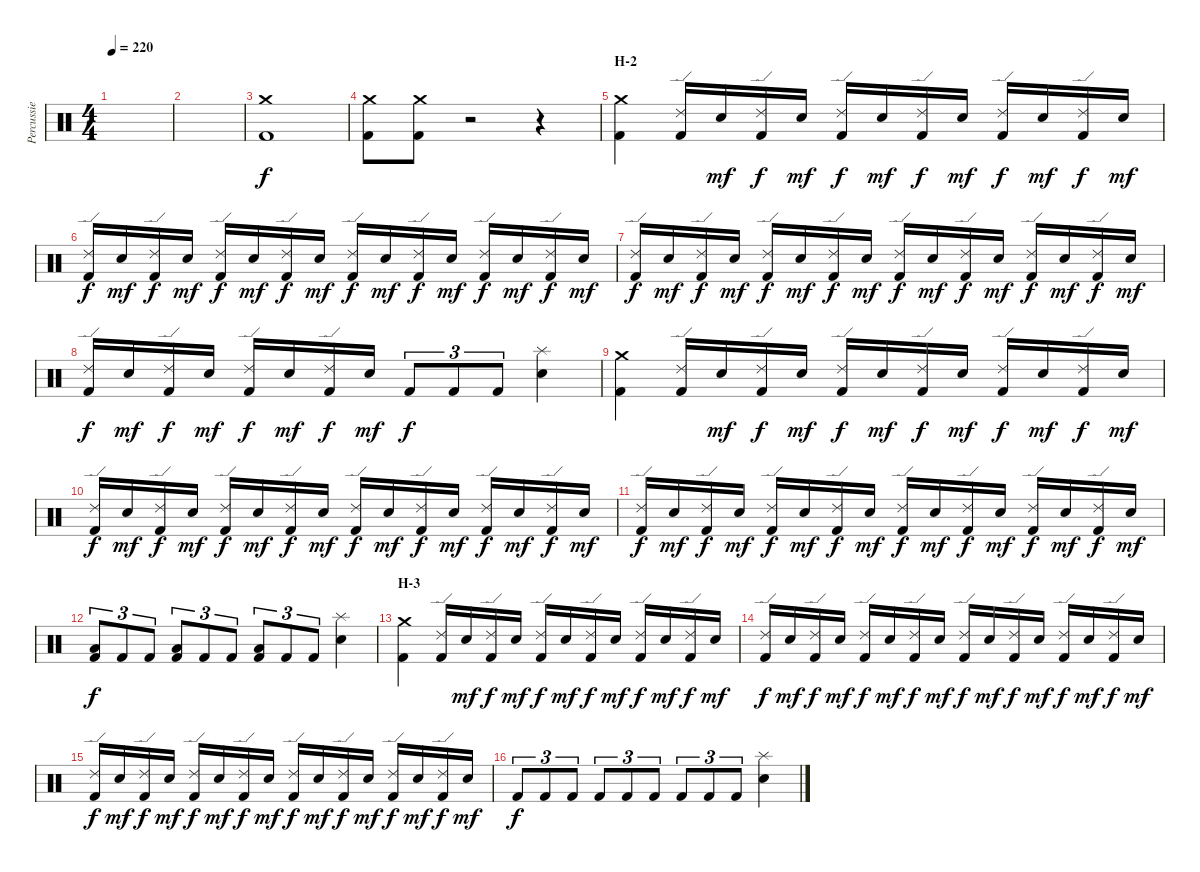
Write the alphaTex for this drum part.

\track ("Percussie" "Percussie") {instrument percussion}
\staff {score}
\articulation defaults
\ts (4 4)
\tempo 220
\clef neutral
\ks c
|
|
("Crash medium (hit)" "Kick (hit) 2").1 |
("Crash medium (hit)" "Kick (hit) 2").8 ("Crash medium (hit)" "Kick (hit) 2").8 r.2 r.4 |
\section ("" "H-2")
("Crash medium (hit)" "Kick (hit) 2").4 ("Ride (edge) 2" "Kick (hit) 2").16 "Electric Snare (hit)".16{dy mf} ("Ride (edge) 2" "Kick (hit) 2").16{dy f} "Electric Snare (hit)".16{dy mf} ("Ride (edge) 2" "Kick (hit) 2").16{dy f} "Electric Snare (hit)".16{dy mf} ("Ride (edge) 2" "Kick (hit) 2").16{dy f} "Electric Snare (hit)".16{dy mf} ("Ride (edge) 2" "Kick (hit) 2").16{dy f} "Electric Snare (hit)".16{dy mf} ("Ride (edge) 2" "Kick (hit) 2").16{dy f} "Electric Snare (hit)".16{dy mf} |
("Ride (edge) 2" "Kick (hit) 2").16{dy f} "Electric Snare (hit)".16{dy mf} ("Ride (edge) 2" "Kick (hit) 2").16{dy f} "Electric Snare (hit)".16{dy mf} ("Ride (edge) 2" "Kick (hit) 2").16{dy f} "Electric Snare (hit)".16{dy mf} ("Ride (edge) 2" "Kick (hit) 2").16{dy f} "Electric Snare (hit)".16{dy mf} ("Ride (edge) 2" "Kick (hit) 2").16{dy f} "Electric Snare (hit)".16{dy mf} ("Ride (edge) 2" "Kick (hit) 2").16{dy f} "Electric Snare (hit)".16{dy mf} ("Ride (edge) 2" "Kick (hit) 2").16{dy f} "Electric Snare (hit)".16{dy mf} ("Ride (edge) 2" "Kick (hit) 2").16{dy f} "Electric Snare (hit)".16{dy mf} |
("Ride (edge) 2" "Kick (hit) 2").16{dy f} "Electric Snare (hit)".16{dy mf} ("Ride (edge) 2" "Kick (hit) 2").16{dy f} "Electric Snare (hit)".16{dy mf} ("Ride (edge) 2" "Kick (hit) 2").16{dy f} "Electric Snare (hit)".16{dy mf} ("Ride (edge) 2" "Kick (hit) 2").16{dy f} "Electric Snare (hit)".16{dy mf} ("Ride (edge) 2" "Kick (hit) 2").16{dy f} "Electric Snare (hit)".16{dy mf} ("Ride (edge) 2" "Kick (hit) 2").16{dy f} "Electric Snare (hit)".16{dy mf} ("Ride (edge) 2" "Kick (hit) 2").16{dy f} "Electric Snare (hit)".16{dy mf} ("Ride (edge) 2" "Kick (hit) 2").16{dy f} "Electric Snare (hit)".16{dy mf} |
("Ride (edge) 2" "Kick (hit) 2").16{dy f} "Electric Snare (hit)".16{dy mf} ("Ride (edge) 2" "Kick (hit) 2").16{dy f} "Electric Snare (hit)".16{dy mf} ("Ride (edge) 2" "Kick (hit) 2").16{dy f} "Electric Snare (hit)".16{dy mf} ("Ride (edge) 2" "Kick (hit) 2").16{dy f} "Electric Snare (hit)".16{dy mf} "Kick (hit) 2".8{tu (3 2) dy f} "Kick (hit) 2".8{tu (3 2)} "Kick (hit) 2".8{tu (3 2)} ("Splash (hit)" "Electric Snare (hit)").4 |
("Crash medium (hit)" "Kick (hit) 2").4 ("Ride (edge) 2" "Kick (hit) 2").16 "Electric Snare (hit)".16{dy mf} ("Ride (edge) 2" "Kick (hit) 2").16{dy f} "Electric Snare (hit)".16{dy mf} ("Ride (edge) 2" "Kick (hit) 2").16{dy f} "Electric Snare (hit)".16{dy mf} ("Ride (edge) 2" "Kick (hit) 2").16{dy f} "Electric Snare (hit)".16{dy mf} ("Ride (edge) 2" "Kick (hit) 2").16{dy f} "Electric Snare (hit)".16{dy mf} ("Ride (edge) 2" "Kick (hit) 2").16{dy f} "Electric Snare (hit)".16{dy mf} |
("Ride (edge) 2" "Kick (hit) 2").16{dy f} "Electric Snare (hit)".16{dy mf} ("Ride (edge) 2" "Kick (hit) 2").16{dy f} "Electric Snare (hit)".16{dy mf} ("Ride (edge) 2" "Kick (hit) 2").16{dy f} "Electric Snare (hit)".16{dy mf} ("Ride (edge) 2" "Kick (hit) 2").16{dy f} "Electric Snare (hit)".16{dy mf} ("Ride (edge) 2" "Kick (hit) 2").16{dy f} "Electric Snare (hit)".16{dy mf} ("Ride (edge) 2" "Kick (hit) 2").16{dy f} "Electric Snare (hit)".16{dy mf} ("Ride (edge) 2" "Kick (hit) 2").16{dy f} "Electric Snare (hit)".16{dy mf} ("Ride (edge) 2" "Kick (hit) 2").16{dy f} "Electric Snare (hit)".16{dy mf} |
("Ride (edge) 2" "Kick (hit) 2").16{dy f} "Electric Snare (hit)".16{dy mf} ("Ride (edge) 2" "Kick (hit) 2").16{dy f} "Electric Snare (hit)".16{dy mf} ("Ride (edge) 2" "Kick (hit) 2").16{dy f} "Electric Snare (hit)".16{dy mf} ("Ride (edge) 2" "Kick (hit) 2").16{dy f} "Electric Snare (hit)".16{dy mf} ("Ride (edge) 2" "Kick (hit) 2").16{dy f} "Electric Snare (hit)".16{dy mf} ("Ride (edge) 2" "Kick (hit) 2").16{dy f} "Electric Snare (hit)".16{dy mf} ("Ride (edge) 2" "Kick (hit) 2").16{dy f} "Electric Snare (hit)".16{dy mf} ("Ride (edge) 2" "Kick (hit) 2").16{dy f} "Electric Snare (hit)".16{dy mf} |
("Low Tom (hit)" "Kick (hit) 2").8{tu (3 2) dy f} "Kick (hit) 2".8{tu (3 2)} "Kick (hit) 2".8{tu (3 2)} ("Low Tom (hit)" "Kick (hit) 2").8{tu (3 2)} "Kick (hit) 2".8{tu (3 2)} "Kick (hit) 2".8{tu (3 2)} ("Low Tom (hit)" "Kick (hit) 2").8{tu (3 2)} "Kick (hit) 2".8{tu (3 2)} "Kick (hit) 2".8{tu (3 2)} ("Splash (hit)" "Electric Snare (hit)").4 |
\section ("" "H-3")
("Crash medium (hit)" "Kick (hit) 2").4 ("Ride (edge) 2" "Kick (hit) 2").16 "Electric Snare (hit)".16{dy mf} ("Ride (edge) 2" "Kick (hit) 2").16{dy f} "Electric Snare (hit)".16{dy mf} ("Ride (edge) 2" "Kick (hit) 2").16{dy f} "Electric Snare (hit)".16{dy mf} ("Ride (edge) 2" "Kick (hit) 2").16{dy f} "Electric Snare (hit)".16{dy mf} ("Ride (edge) 2" "Kick (hit) 2").16{dy f} "Electric Snare (hit)".16{dy mf} ("Ride (edge) 2" "Kick (hit) 2").16{dy f} "Electric Snare (hit)".16{dy mf} |
("Ride (edge) 2" "Kick (hit) 2").16{dy f} "Electric Snare (hit)".16{dy mf} ("Ride (edge) 2" "Kick (hit) 2").16{dy f} "Electric Snare (hit)".16{dy mf} ("Ride (edge) 2" "Kick (hit) 2").16{dy f} "Electric Snare (hit)".16{dy mf} ("Ride (edge) 2" "Kick (hit) 2").16{dy f} "Electric Snare (hit)".16{dy mf} ("Ride (edge) 2" "Kick (hit) 2").16{dy f} "Electric Snare (hit)".16{dy mf} ("Ride (edge) 2" "Kick (hit) 2").16{dy f} "Electric Snare (hit)".16{dy mf} ("Ride (edge) 2" "Kick (hit) 2").16{dy f} "Electric Snare (hit)".16{dy mf} ("Ride (edge) 2" "Kick (hit) 2").16{dy f} "Electric Snare (hit)".16{dy mf} |
("Ride (edge) 2" "Kick (hit) 2").16{dy f} "Electric Snare (hit)".16{dy mf} ("Ride (edge) 2" "Kick (hit) 2").16{dy f} "Electric Snare (hit)".16{dy mf} ("Ride (edge) 2" "Kick (hit) 2").16{dy f} "Electric Snare (hit)".16{dy mf} ("Ride (edge) 2" "Kick (hit) 2").16{dy f} "Electric Snare (hit)".16{dy mf} ("Ride (edge) 2" "Kick (hit) 2").16{dy f} "Electric Snare (hit)".16{dy mf} ("Ride (edge) 2" "Kick (hit) 2").16{dy f} "Electric Snare (hit)".16{dy mf} ("Ride (edge) 2" "Kick (hit) 2").16{dy f} "Electric Snare (hit)".16{dy mf} ("Ride (edge) 2" "Kick (hit) 2").16{dy f} "Electric Snare (hit)".16{dy mf} |
"Kick (hit) 2".8{tu (3 2) dy f} "Kick (hit) 2".8{tu (3 2)} "Kick (hit) 2".8{tu (3 2)} "Kick (hit) 2".8{tu (3 2)} "Kick (hit) 2".8{tu (3 2)} "Kick (hit) 2".8{tu (3 2)} "Kick (hit) 2".8{tu (3 2)} "Kick (hit) 2".8{tu (3 2)} "Kick (hit) 2".8{tu (3 2)} ("Splash (hit)" "Electric Snare (hit)").4
